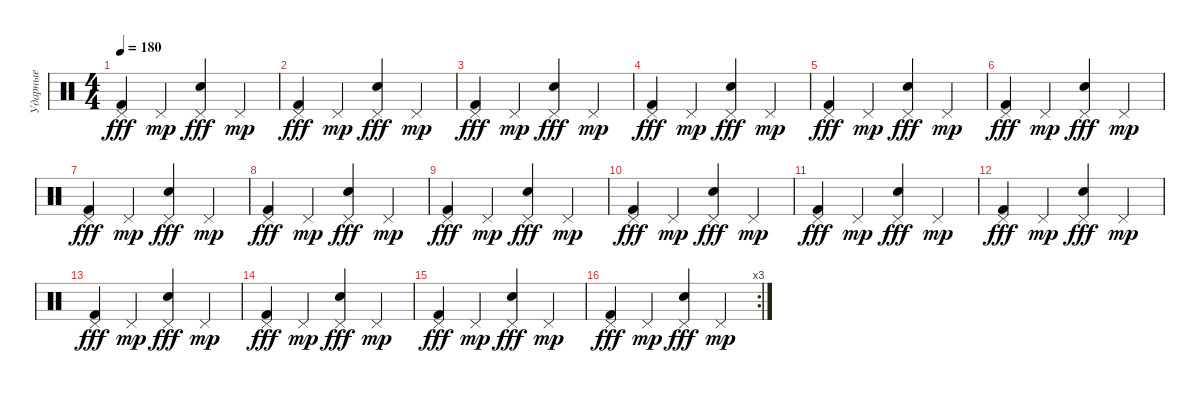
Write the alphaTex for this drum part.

\track ("Ударные" "Ударные") {instrument percussion}
\staff {score}
\articulation defaults
\ts (4 4)
\tempo 180
\clef neutral
\ks c
("Pedal Hi-Hat (hit)" "Kick (hit) 2").4{dy fff} "Pedal Hi-Hat (hit)".4{dy mp} ("Pedal Hi-Hat (hit)" "Electric Snare (hit)").4{dy fff} "Pedal Hi-Hat (hit)".4{dy mp} |
("Pedal Hi-Hat (hit)" "Kick (hit) 2").4{dy fff} "Pedal Hi-Hat (hit)".4{dy mp} ("Pedal Hi-Hat (hit)" "Electric Snare (hit)").4{dy fff} "Pedal Hi-Hat (hit)".4{dy mp} |
("Pedal Hi-Hat (hit)" "Kick (hit) 2").4{dy fff} "Pedal Hi-Hat (hit)".4{dy mp} ("Pedal Hi-Hat (hit)" "Electric Snare (hit)").4{dy fff} "Pedal Hi-Hat (hit)".4{dy mp} |
("Pedal Hi-Hat (hit)" "Kick (hit) 2").4{dy fff} "Pedal Hi-Hat (hit)".4{dy mp} ("Pedal Hi-Hat (hit)" "Electric Snare (hit)").4{dy fff} "Pedal Hi-Hat (hit)".4{dy mp} |
("Pedal Hi-Hat (hit)" "Kick (hit) 2").4{dy fff} "Pedal Hi-Hat (hit)".4{dy mp} ("Pedal Hi-Hat (hit)" "Electric Snare (hit)").4{dy fff} "Pedal Hi-Hat (hit)".4{dy mp} |
("Pedal Hi-Hat (hit)" "Kick (hit) 2").4{dy fff} "Pedal Hi-Hat (hit)".4{dy mp} ("Pedal Hi-Hat (hit)" "Electric Snare (hit)").4{dy fff} "Pedal Hi-Hat (hit)".4{dy mp} |
("Pedal Hi-Hat (hit)" "Kick (hit) 2").4{dy fff} "Pedal Hi-Hat (hit)".4{dy mp} ("Pedal Hi-Hat (hit)" "Electric Snare (hit)").4{dy fff} "Pedal Hi-Hat (hit)".4{dy mp} |
("Pedal Hi-Hat (hit)" "Kick (hit) 2").4{dy fff} "Pedal Hi-Hat (hit)".4{dy mp} ("Pedal Hi-Hat (hit)" "Electric Snare (hit)").4{dy fff} "Pedal Hi-Hat (hit)".4{dy mp} |
("Pedal Hi-Hat (hit)" "Kick (hit) 2").4{dy fff} "Pedal Hi-Hat (hit)".4{dy mp} ("Pedal Hi-Hat (hit)" "Electric Snare (hit)").4{dy fff} "Pedal Hi-Hat (hit)".4{dy mp} |
("Pedal Hi-Hat (hit)" "Kick (hit) 2").4{dy fff} "Pedal Hi-Hat (hit)".4{dy mp} ("Pedal Hi-Hat (hit)" "Electric Snare (hit)").4{dy fff} "Pedal Hi-Hat (hit)".4{dy mp} |
("Pedal Hi-Hat (hit)" "Kick (hit) 2").4{dy fff} "Pedal Hi-Hat (hit)".4{dy mp} ("Pedal Hi-Hat (hit)" "Electric Snare (hit)").4{dy fff} "Pedal Hi-Hat (hit)".4{dy mp} |
("Pedal Hi-Hat (hit)" "Kick (hit) 2").4{dy fff} "Pedal Hi-Hat (hit)".4{dy mp} ("Pedal Hi-Hat (hit)" "Electric Snare (hit)").4{dy fff} "Pedal Hi-Hat (hit)".4{dy mp} |
("Pedal Hi-Hat (hit)" "Kick (hit) 2").4{dy fff} "Pedal Hi-Hat (hit)".4{dy mp} ("Pedal Hi-Hat (hit)" "Electric Snare (hit)").4{dy fff} "Pedal Hi-Hat (hit)".4{dy mp} |
("Pedal Hi-Hat (hit)" "Kick (hit) 2").4{dy fff} "Pedal Hi-Hat (hit)".4{dy mp} ("Pedal Hi-Hat (hit)" "Electric Snare (hit)").4{dy fff} "Pedal Hi-Hat (hit)".4{dy mp} |
("Pedal Hi-Hat (hit)" "Kick (hit) 2").4{dy fff} "Pedal Hi-Hat (hit)".4{dy mp} ("Pedal Hi-Hat (hit)" "Electric Snare (hit)").4{dy fff} "Pedal Hi-Hat (hit)".4{dy mp} |
\rc 3
("Pedal Hi-Hat (hit)" "Kick (hit) 2").4{dy fff} "Pedal Hi-Hat (hit)".4{dy mp} ("Pedal Hi-Hat (hit)" "Electric Snare (hit)").4{dy fff} "Pedal Hi-Hat (hit)".4{dy mp}
